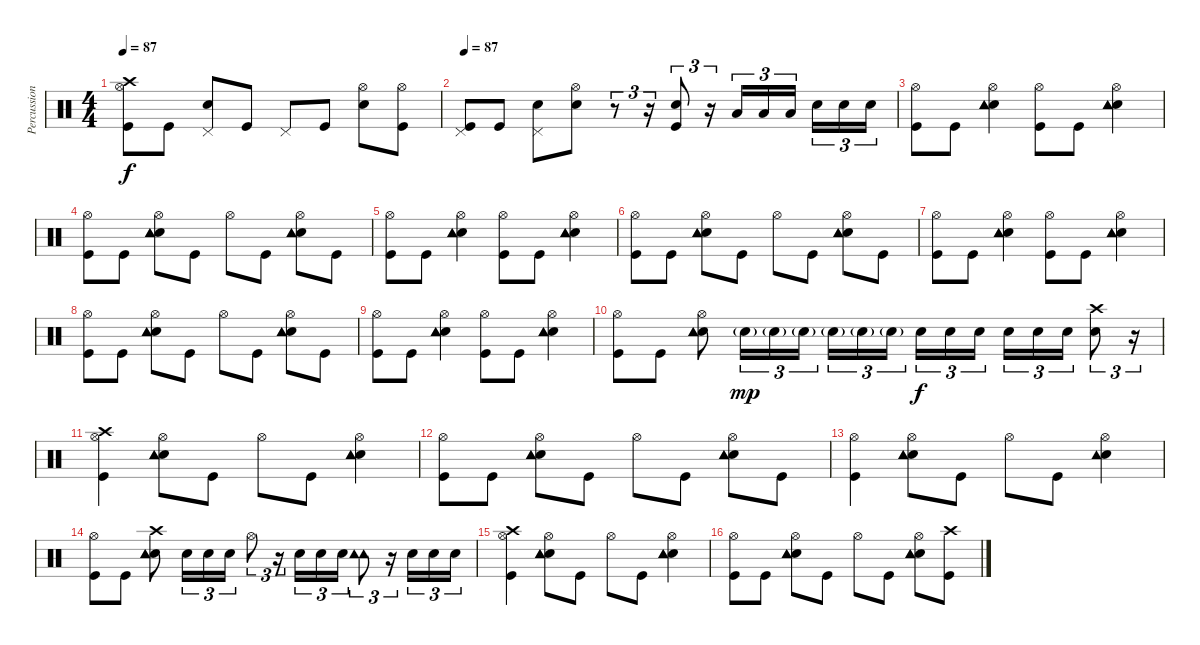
\track ("Percussions" "Percussion") {instrument percussion}
\staff {score}
\articulation defaults
\ts (4 4)
\tempo 87
\clef neutral
\ks c
("Hi-Hat (open)" "Kick (hit)" "Crash high (hit)").8{dy f} "Kick (hit)".8 ("Pedal Hi-Hat (hit)" "Snare (hit) 2").8 "Kick (hit)".8 "Pedal Hi-Hat (hit)".8 "Kick (hit)".8 ("Hi-Hat (open)" "Snare (hit) 2").8 ("Hi-Hat (open)" "Kick (hit)").8 |
\tempo 87
("Pedal Hi-Hat (hit)" "Kick (hit)").8 "Kick (hit)".8 ("Pedal Hi-Hat (hit)" "Snare (hit) 2").8 ("Hi-Hat (open)" "Snare (hit) 2").8 r.8{tu (3 2)} r.16{tu (3 2)} ("Kick (hit)" "Snare (hit) 2").8{tu (3 2)} r.16{tu (3 2)} "Low Tom (hit)".16{tu (3 2)} "Low Tom (hit)".16{tu (3 2)} "Low Tom (hit)".16{tu (3 2)} "Snare (hit) 2".16{tu (3 2)} "Snare (hit) 2".16{tu (3 2)} "Snare (hit) 2".16{tu (3 2)} |
("Hi-Hat (open)" "Kick (hit)").8 "Kick (hit)".8 ("Hi-Hat (open)" "Snare (hit) 2" "Tambourine (hit)" "Tambourine (hit)").4 ("Hi-Hat (open)" "Kick (hit)").8 "Kick (hit)".8 ("Hi-Hat (open)" "Snare (hit) 2" "Tambourine (hit)" "Tambourine (hit)").4 |
("Hi-Hat (open)" "Kick (hit)").8 "Kick (hit)".8 ("Hi-Hat (open)" "Snare (hit) 2" "Tambourine (hit)" "Tambourine (hit)").8 "Kick (hit)".8 "Hi-Hat (open)".8 "Kick (hit)".8 ("Hi-Hat (open)" "Snare (hit) 2" "Tambourine (hit)" "Tambourine (hit)").8 "Kick (hit)".8 |
("Hi-Hat (open)" "Kick (hit)").8 "Kick (hit)".8 ("Hi-Hat (open)" "Snare (hit) 2" "Tambourine (hit)" "Tambourine (hit)").4 ("Hi-Hat (open)" "Kick (hit)").8 "Kick (hit)".8 ("Hi-Hat (open)" "Snare (hit) 2" "Tambourine (hit)" "Tambourine (hit)").4 |
("Hi-Hat (open)" "Kick (hit)").8 "Kick (hit)".8 ("Hi-Hat (open)" "Snare (hit) 2" "Tambourine (hit)" "Tambourine (hit)").8 "Kick (hit)".8 "Hi-Hat (open)".8 "Kick (hit)".8 ("Hi-Hat (open)" "Snare (hit) 2" "Tambourine (hit)" "Tambourine (hit)").8 "Kick (hit)".8 |
("Hi-Hat (open)" "Kick (hit)").8 "Kick (hit)".8 ("Hi-Hat (open)" "Snare (hit) 2" "Tambourine (hit)" "Tambourine (hit)").4 ("Hi-Hat (open)" "Kick (hit)").8 "Kick (hit)".8 ("Hi-Hat (open)" "Snare (hit) 2" "Tambourine (hit)" "Tambourine (hit)").4 |
("Hi-Hat (open)" "Kick (hit)").8 "Kick (hit)".8 ("Hi-Hat (open)" "Snare (hit) 2" "Tambourine (hit)" "Tambourine (hit)").8 "Kick (hit)".8 "Hi-Hat (open)".8 "Kick (hit)".8 ("Hi-Hat (open)" "Snare (hit) 2" "Tambourine (hit)" "Tambourine (hit)").8 "Kick (hit)".8 |
("Hi-Hat (open)" "Kick (hit)").8 "Kick (hit)".8 ("Hi-Hat (open)" "Snare (hit) 2" "Tambourine (hit)" "Tambourine (hit)").4 ("Hi-Hat (open)" "Kick (hit)").8 "Kick (hit)".8 ("Hi-Hat (open)" "Snare (hit) 2" "Tambourine (hit)" "Tambourine (hit)").4 |
("Hi-Hat (open)" "Kick (hit)").8 "Kick (hit)".8 ("Hi-Hat (open)" "Snare (hit) 2" "Tambourine (hit)" "Tambourine (hit)").8 "Snare (hit) 2"{g}.16{tu (3 2) dy mp} "Snare (hit) 2"{g}.16{tu (3 2)} "Snare (hit) 2"{g}.16{tu (3 2)} "Snare (hit) 2"{g}.16{tu (3 2)} "Snare (hit) 2"{g}.16{tu (3 2)} "Snare (hit) 2"{g}.16{tu (3 2)} "Snare (hit) 2".16{tu (3 2) dy f} "Snare (hit) 2".16{tu (3 2)} "Snare (hit) 2".16{tu (3 2)} "Snare (hit) 2".16{tu (3 2)} "Snare (hit) 2".16{tu (3 2)} "Snare (hit) 2".16{tu (3 2)} ("Snare (hit) 2" "Crash high (hit)").8{tu (3 2)} r.16{tu (3 2)} |
("Hi-Hat (open)" "Kick (hit)" "Crash high (hit)").4 ("Hi-Hat (open)" "Snare (hit) 2" "Tambourine (hit)" "Tambourine (hit)").8 "Kick (hit)".8 "Hi-Hat (open)".8 "Kick (hit)".8 ("Hi-Hat (open)" "Snare (hit) 2" "Tambourine (hit)" "Tambourine (hit)").4 |
("Hi-Hat (open)" "Kick (hit)").8 "Kick (hit)".8 ("Hi-Hat (open)" "Snare (hit) 2" "Tambourine (hit)" "Tambourine (hit)").8 "Kick (hit)".8 "Hi-Hat (open)".8 "Kick (hit)".8 ("Hi-Hat (open)" "Snare (hit) 2" "Tambourine (hit)" "Tambourine (hit)").8 "Kick (hit)".8 |
("Hi-Hat (open)" "Kick (hit)").4 ("Hi-Hat (open)" "Snare (hit) 2" "Tambourine (hit)" "Tambourine (hit)").8 "Kick (hit)".8 "Hi-Hat (open)".8 "Kick (hit)".8 ("Hi-Hat (open)" "Snare (hit) 2" "Tambourine (hit)").4 |
("Hi-Hat (open)" "Kick (hit)").8 "Kick (hit)".8 ("Crash high (hit)" "Snare (hit) 2" "Tambourine (hit)" "Tambourine (hit)").8 "Snare (hit) 2".16{tu (3 2)} "Snare (hit) 2".16{tu (3 2)} "Snare (hit) 2".16{tu (3 2)} "Hi-Hat (open)".8{tu (3 2)} r.16{tu (3 2)} "Snare (hit) 2".16{tu (3 2)} "Snare (hit) 2".16{tu (3 2)} "Snare (hit) 2".16{tu (3 2)} ("Tambourine (hit)" "Tambourine (hit)").8{tu (3 2)} r.16{tu (3 2)} "Snare (hit) 2".16{tu (3 2)} "Snare (hit) 2".16{tu (3 2)} "Snare (hit) 2".16{tu (3 2)} |
("Hi-Hat (open)" "Kick (hit)" "Crash high (hit)").4 ("Hi-Hat (open)" "Snare (hit) 2" "Tambourine (hit)" "Tambourine (hit)").8 "Kick (hit)".8 "Hi-Hat (open)".8 "Kick (hit)".8 ("Hi-Hat (open)" "Snare (hit) 2" "Tambourine (hit)" "Tambourine (hit)").4 |
("Hi-Hat (open)" "Kick (hit)").8 "Kick (hit)".8 ("Hi-Hat (open)" "Snare (hit) 2" "Tambourine (hit)" "Tambourine (hit)").8 "Kick (hit)".8 "Hi-Hat (open)".8 "Kick (hit)".8 ("Hi-Hat (open)" "Snare (hit) 2" "Tambourine (hit)" "Tambourine (hit)").8 ("Kick (hit)" "Crash high (hit)").8
